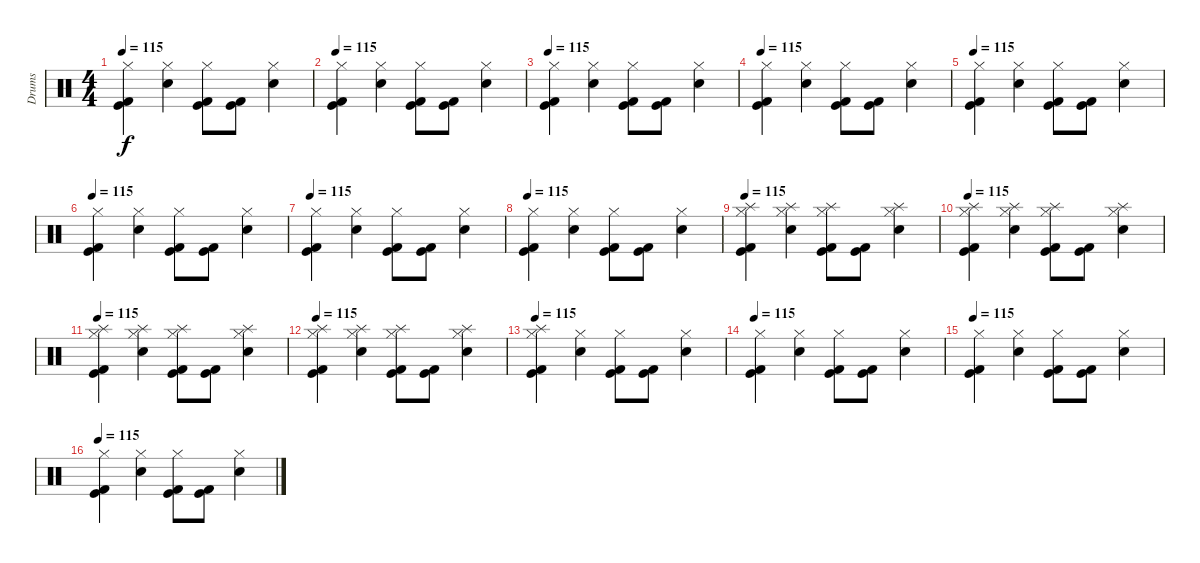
\track ("Drums" "Drums") {instrument percussion}
\staff {score}
\articulation defaults
\ts (4 4)
\tempo 115
\clef neutral
\ks c
("Kick (hit) 2" "Kick (hit)" "Hi-Hat (closed)").4{dy f} ("Hi-Hat (closed)" "Electric Snare (hit)").4 ("Kick (hit) 2" "Kick (hit)" "Hi-Hat (closed)").8 ("Kick (hit) 2" "Kick (hit)").8 ("Electric Snare (hit)" "Hi-Hat (closed)").4 |
\tempo 115
("Kick (hit) 2" "Kick (hit)" "Hi-Hat (closed)").4 ("Hi-Hat (closed)" "Electric Snare (hit)").4 ("Kick (hit) 2" "Kick (hit)" "Hi-Hat (closed)").8 ("Kick (hit) 2" "Kick (hit)").8 ("Electric Snare (hit)" "Hi-Hat (closed)").4 |
\tempo 115
("Kick (hit) 2" "Kick (hit)" "Hi-Hat (closed)").4 ("Hi-Hat (closed)" "Electric Snare (hit)").4 ("Kick (hit) 2" "Kick (hit)" "Hi-Hat (closed)").8 ("Kick (hit) 2" "Kick (hit)").8 ("Electric Snare (hit)" "Hi-Hat (closed)").4 |
\tempo 115
("Kick (hit) 2" "Kick (hit)" "Hi-Hat (closed)").4 ("Hi-Hat (closed)" "Electric Snare (hit)").4 ("Kick (hit) 2" "Kick (hit)" "Hi-Hat (closed)").8 ("Kick (hit) 2" "Kick (hit)").8 ("Electric Snare (hit)" "Hi-Hat (closed)").4 |
\tempo 115
("Kick (hit) 2" "Kick (hit)" "Hi-Hat (closed)").4 ("Hi-Hat (closed)" "Electric Snare (hit)").4 ("Kick (hit) 2" "Kick (hit)" "Hi-Hat (closed)").8 ("Kick (hit) 2" "Kick (hit)").8 ("Electric Snare (hit)" "Hi-Hat (closed)").4 |
\tempo 115
("Kick (hit) 2" "Kick (hit)" "Hi-Hat (closed)").4 ("Hi-Hat (closed)" "Electric Snare (hit)").4 ("Kick (hit) 2" "Kick (hit)" "Hi-Hat (closed)").8 ("Kick (hit) 2" "Kick (hit)").8 ("Electric Snare (hit)" "Hi-Hat (closed)").4 |
\tempo 115
("Kick (hit) 2" "Kick (hit)" "Hi-Hat (closed)").4 ("Hi-Hat (closed)" "Electric Snare (hit)").4 ("Kick (hit) 2" "Kick (hit)" "Hi-Hat (closed)").8 ("Kick (hit) 2" "Kick (hit)").8 ("Electric Snare (hit)" "Hi-Hat (closed)").4 |
\tempo 115
("Kick (hit) 2" "Kick (hit)" "Hi-Hat (closed)").4 ("Hi-Hat (closed)" "Electric Snare (hit)").4 ("Kick (hit) 2" "Kick (hit)" "Hi-Hat (closed)").8 ("Kick (hit) 2" "Kick (hit)").8 ("Electric Snare (hit)" "Hi-Hat (closed)").4 |
\tempo 115
("Kick (hit) 2" "Kick (hit)" "Hi-Hat (closed)" "Splash (hit)").4 ("Hi-Hat (closed)" "Electric Snare (hit)" "Splash (hit)").4 ("Kick (hit) 2" "Kick (hit)" "Hi-Hat (closed)" "Splash (hit)").8 ("Kick (hit) 2" "Kick (hit)").8 ("Electric Snare (hit)" "Hi-Hat (closed)" "Splash (hit)").4 |
\tempo 115
("Kick (hit) 2" "Kick (hit)" "Hi-Hat (closed)" "Splash (hit)").4 ("Hi-Hat (closed)" "Electric Snare (hit)" "Splash (hit)").4 ("Kick (hit) 2" "Kick (hit)" "Hi-Hat (closed)" "Splash (hit)").8 ("Kick (hit) 2" "Kick (hit)").8 ("Electric Snare (hit)" "Hi-Hat (closed)" "Splash (hit)").4 |
\tempo 115
("Kick (hit) 2" "Kick (hit)" "Hi-Hat (closed)" "Splash (hit)").4 ("Hi-Hat (closed)" "Electric Snare (hit)" "Splash (hit)").4 ("Kick (hit) 2" "Kick (hit)" "Hi-Hat (closed)" "Splash (hit)").8 ("Kick (hit) 2" "Kick (hit)").8 ("Electric Snare (hit)" "Hi-Hat (closed)" "Splash (hit)").4 |
\tempo 115
("Kick (hit) 2" "Kick (hit)" "Hi-Hat (closed)" "Splash (hit)").4 ("Hi-Hat (closed)" "Electric Snare (hit)" "Splash (hit)").4 ("Kick (hit) 2" "Kick (hit)" "Hi-Hat (closed)" "Splash (hit)").8 ("Kick (hit) 2" "Kick (hit)").8 ("Electric Snare (hit)" "Hi-Hat (closed)" "Splash (hit)").4 |
\tempo 115
("Kick (hit) 2" "Kick (hit)" "Hi-Hat (closed)" "Splash (hit)").4 ("Hi-Hat (closed)" "Electric Snare (hit)").4 ("Kick (hit) 2" "Kick (hit)" "Hi-Hat (closed)").8 ("Kick (hit) 2" "Kick (hit)").8 ("Electric Snare (hit)" "Hi-Hat (closed)").4 |
\tempo 115
("Kick (hit) 2" "Kick (hit)" "Hi-Hat (closed)").4 ("Hi-Hat (closed)" "Electric Snare (hit)").4 ("Kick (hit) 2" "Kick (hit)" "Hi-Hat (closed)").8 ("Kick (hit) 2" "Kick (hit)").8 ("Electric Snare (hit)" "Hi-Hat (closed)").4 |
\tempo 115
("Kick (hit) 2" "Kick (hit)" "Hi-Hat (closed)").4 ("Hi-Hat (closed)" "Electric Snare (hit)").4 ("Kick (hit) 2" "Kick (hit)" "Hi-Hat (closed)").8 ("Kick (hit) 2" "Kick (hit)").8 ("Electric Snare (hit)" "Hi-Hat (closed)").4 |
\tempo 115
("Kick (hit) 2" "Kick (hit)" "Hi-Hat (closed)").4 ("Hi-Hat (closed)" "Electric Snare (hit)").4 ("Kick (hit) 2" "Kick (hit)" "Hi-Hat (closed)").8 ("Kick (hit) 2" "Kick (hit)").8 ("Electric Snare (hit)" "Hi-Hat (closed)").4
